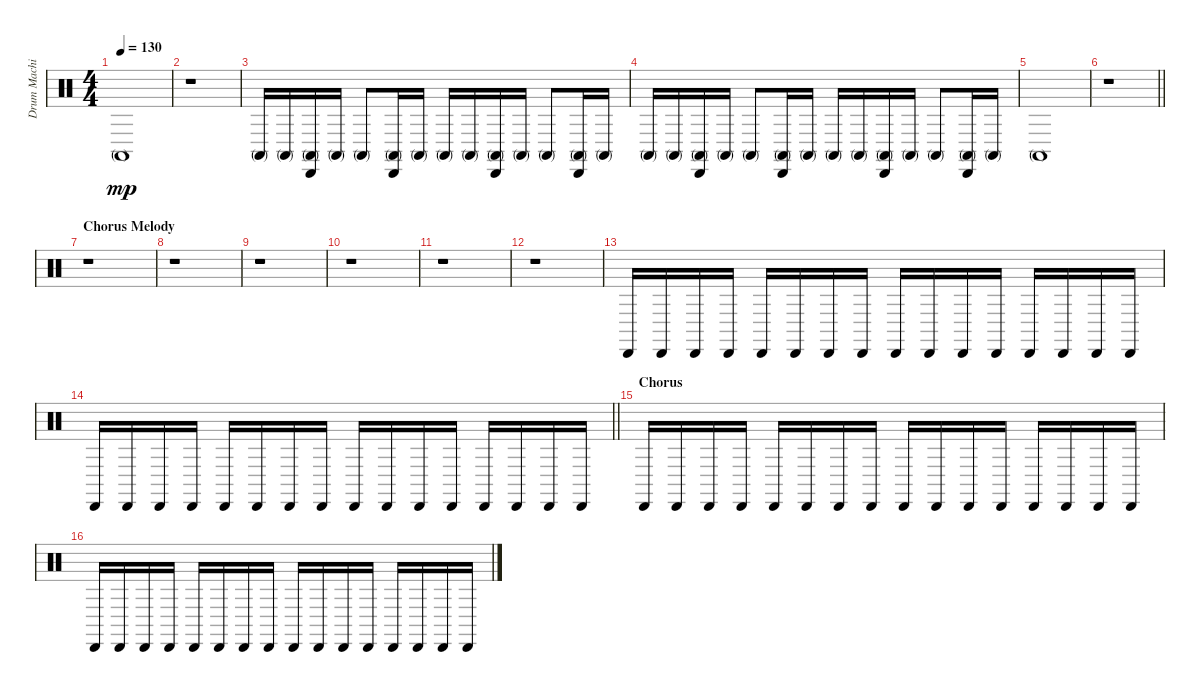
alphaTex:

\track ("Drum Machine" "Drum Machi") {instrument percussion}
\staff {score}
\articulation defaults
\ts (4 4)
\tempo 130
\clef neutral
\ks c "Conga high (mute)".1{dy mp}
|
r.1 |
"Conga high (mute)".16 "Conga high (mute)".16 ("Cabasa (hit)" "Conga high (mute)").16 "Conga high (mute)".16 "Conga high (mute)".8 ("Cabasa (hit)" "Conga high (mute)").16 "Conga high (mute)".16 "Conga high (mute)".16 "Conga high (mute)".16 ("Cabasa (hit)" "Conga high (mute)").16 "Conga high (mute)".16 "Conga high (mute)".8 ("Cabasa (hit)" "Conga high (mute)").16 "Conga high (mute)".16 |
"Conga high (mute)".16 "Conga high (mute)".16 ("Cabasa (hit)" "Conga high (mute)").16 "Conga high (mute)".16 "Conga high (mute)".8 ("Cabasa (hit)" "Conga high (mute)").16 "Conga high (mute)".16 "Conga high (mute)".16 "Conga high (mute)".16 ("Cabasa (hit)" "Conga high (mute)").16 "Conga high (mute)".16 "Conga high (mute)".8 ("Cabasa (hit)" "Conga high (mute)").16 "Conga high (mute)".16 |
"Conga high (mute)".1 |
\barLineRight lightlight
r.1 |
\section ("" "Chorus Melody")
r.1 |
r.1 |
r.1 |
r.1 |
r.1 |
r.1 |
"Cabasa (hit)".16 "Cabasa (hit)".16 "Cabasa (hit)".16 "Cabasa (hit)".16 "Cabasa (hit)".16 "Cabasa (hit)".16 "Cabasa (hit)".16 "Cabasa (hit)".16 "Cabasa (hit)".16 "Cabasa (hit)".16 "Cabasa (hit)".16 "Cabasa (hit)".16 "Cabasa (hit)".16 "Cabasa (hit)".16 "Cabasa (hit)".16 "Cabasa (hit)".16 |
\barLineRight lightlight "Cabasa (hit)".16 "Cabasa (hit)".16 "Cabasa (hit)".16 "Cabasa (hit)".16 "Cabasa (hit)".16 "Cabasa (hit)".16 "Cabasa (hit)".16 "Cabasa (hit)".16 "Cabasa (hit)".16 "Cabasa (hit)".16 "Cabasa (hit)".16 "Cabasa (hit)".16 "Cabasa (hit)".16 "Cabasa (hit)".16 "Cabasa (hit)".16 "Cabasa (hit)".16
|
\section ("" "Chorus")
"Cabasa (hit)".16 "Cabasa (hit)".16 "Cabasa (hit)".16 "Cabasa (hit)".16 "Cabasa (hit)".16 "Cabasa (hit)".16 "Cabasa (hit)".16 "Cabasa (hit)".16 "Cabasa (hit)".16 "Cabasa (hit)".16 "Cabasa (hit)".16 "Cabasa (hit)".16 "Cabasa (hit)".16 "Cabasa (hit)".16 "Cabasa (hit)".16 "Cabasa (hit)".16 |
"Cabasa (hit)".16 "Cabasa (hit)".16 "Cabasa (hit)".16 "Cabasa (hit)".16 "Cabasa (hit)".16 "Cabasa (hit)".16 "Cabasa (hit)".16 "Cabasa (hit)".16 "Cabasa (hit)".16 "Cabasa (hit)".16 "Cabasa (hit)".16 "Cabasa (hit)".16 "Cabasa (hit)".16 "Cabasa (hit)".16 "Cabasa (hit)".16 "Cabasa (hit)".16
